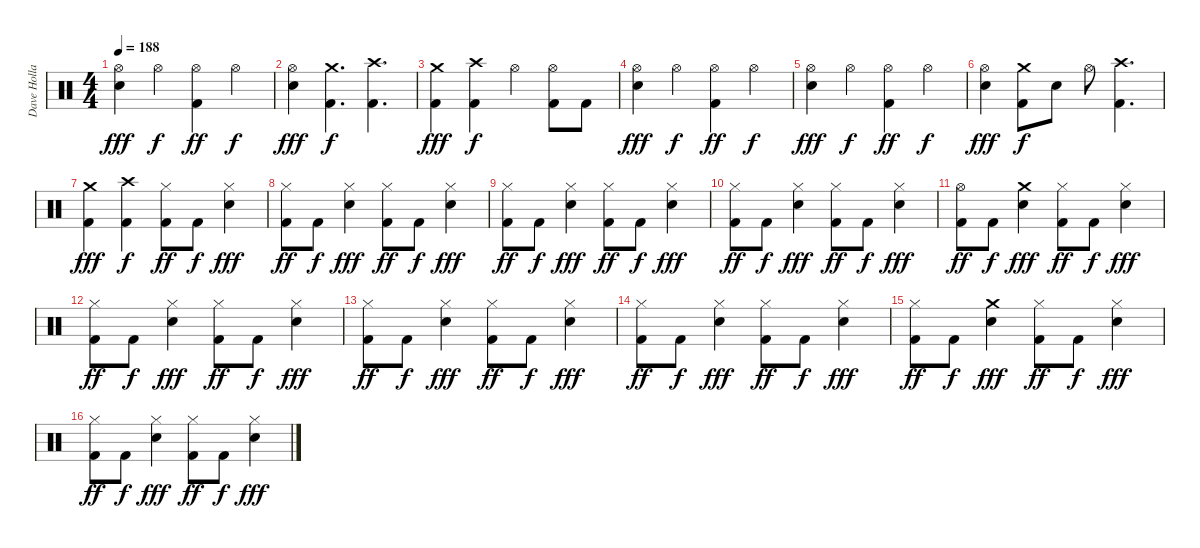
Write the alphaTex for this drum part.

\track ("Dave Holland" "Dave Holla") {instrument percussion}
\staff {score}
\articulation defaults
\ts (4 4)
\tempo 188
\clef neutral
\ks c
("Snare (hit) 2" "Hi-Hat (open)").4{dy fff} "Hi-Hat (open)".4{dy f} ("Kick (hit) 2" "Hi-Hat (open)").4{dy ff} "Hi-Hat (open)".4{dy f} |
("Snare (hit) 2" "Hi-Hat (open)").4{dy fff} ("Kick (hit) 2" "Crash medium (hit)").4{d dy f} ("Kick (hit) 2" "Crash high (hit)").4{d} |
("Kick (hit) 2" "Crash medium (hit)").4{dy fff} ("Kick (hit) 2" "Crash high (hit)").4{dy f} "Hi-Hat (open)".4 ("Kick (hit) 2" "Hi-Hat (open)").8 "Kick (hit) 2".8 |
("Snare (hit) 2" "Hi-Hat (open)").4{dy fff} "Hi-Hat (open)".4{dy f} ("Kick (hit) 2" "Hi-Hat (open)").4{dy ff} "Hi-Hat (open)".4{dy f} |
("Snare (hit) 2" "Hi-Hat (open)").4{dy fff} "Hi-Hat (open)".4{dy f} ("Kick (hit) 2" "Hi-Hat (open)").4{dy ff} "Hi-Hat (open)".4{dy f} |
("Snare (hit) 2" "Hi-Hat (open)").4{dy fff} ("Kick (hit) 2" "Crash medium (hit)").8{dy f} "Snare (hit) 2".8 "Hi-Hat (open)".8 ("Kick (hit) 2" "Crash high (hit)").4{d} |
("Kick (hit) 2" "Crash medium (hit)").4{dy fff} ("Kick (hit) 2" "Crash high (hit)").4{dy f} ("Kick (hit) 2" "Hi-Hat (closed)").8{dy ff} "Kick (hit) 2".8{dy f} ("Snare (hit) 2" "Hi-Hat (closed)").4{dy fff} |
("Kick (hit) 2" "Hi-Hat (closed)").8{dy ff} "Kick (hit) 2".8{dy f} ("Snare (hit) 2" "Hi-Hat (closed)").4{dy fff} ("Kick (hit) 2" "Hi-Hat (closed)").8{dy ff} "Kick (hit) 2".8{dy f} ("Snare (hit) 2" "Hi-Hat (closed)").4{dy fff} |
("Kick (hit) 2" "Hi-Hat (closed)").8{dy ff} "Kick (hit) 2".8{dy f} ("Snare (hit) 2" "Hi-Hat (closed)").4{dy fff} ("Kick (hit) 2" "Hi-Hat (closed)").8{dy ff} "Kick (hit) 2".8{dy f} ("Snare (hit) 2" "Hi-Hat (closed)").4{dy fff} |
("Kick (hit) 2" "Hi-Hat (closed)").8{dy ff} "Kick (hit) 2".8{dy f} ("Snare (hit) 2" "Hi-Hat (closed)").4{dy fff} ("Kick (hit) 2" "Hi-Hat (closed)").8{dy ff} "Kick (hit) 2".8{dy f} ("Snare (hit) 2" "Hi-Hat (closed)").4{dy fff} |
("Kick (hit) 2" "Hi-Hat (open)").8{dy ff} "Kick (hit) 2".8{dy f} ("Snare (hit) 2" "Crash medium (hit)").4{dy fff} ("Kick (hit) 2" "Hi-Hat (closed)").8{dy ff} "Kick (hit) 2".8{dy f} ("Snare (hit) 2" "Hi-Hat (closed)").4{dy fff} |
("Kick (hit) 2" "Hi-Hat (closed)").8{dy ff} "Kick (hit) 2".8{dy f} ("Snare (hit) 2" "Hi-Hat (closed)").4{dy fff} ("Kick (hit) 2" "Hi-Hat (closed)").8{dy ff} "Kick (hit) 2".8{dy f} ("Snare (hit) 2" "Hi-Hat (closed)").4{dy fff} |
("Kick (hit) 2" "Hi-Hat (closed)").8{dy ff} "Kick (hit) 2".8{dy f} ("Snare (hit) 2" "Hi-Hat (closed)").4{dy fff} ("Kick (hit) 2" "Hi-Hat (closed)").8{dy ff} "Kick (hit) 2".8{dy f} ("Snare (hit) 2" "Hi-Hat (closed)").4{dy fff} |
("Kick (hit) 2" "Hi-Hat (closed)").8{dy ff} "Kick (hit) 2".8{dy f} ("Snare (hit) 2" "Hi-Hat (closed)").4{dy fff} ("Kick (hit) 2" "Hi-Hat (closed)").8{dy ff} "Kick (hit) 2".8{dy f} ("Snare (hit) 2" "Hi-Hat (closed)").4{dy fff} |
("Kick (hit) 2" "Hi-Hat (closed)").8{dy ff} "Kick (hit) 2".8{dy f} ("Snare (hit) 2" "Crash medium (hit)").4{dy fff} ("Kick (hit) 2" "Hi-Hat (closed)").8{dy ff} "Kick (hit) 2".8{dy f} ("Snare (hit) 2" "Hi-Hat (closed)").4{dy fff} |
("Kick (hit) 2" "Hi-Hat (closed)").8{dy ff} "Kick (hit) 2".8{dy f} ("Snare (hit) 2" "Hi-Hat (closed)").4{dy fff} ("Kick (hit) 2" "Hi-Hat (closed)").8{dy ff} "Kick (hit) 2".8{dy f} ("Snare (hit) 2" "Hi-Hat (closed)").4{dy fff}
